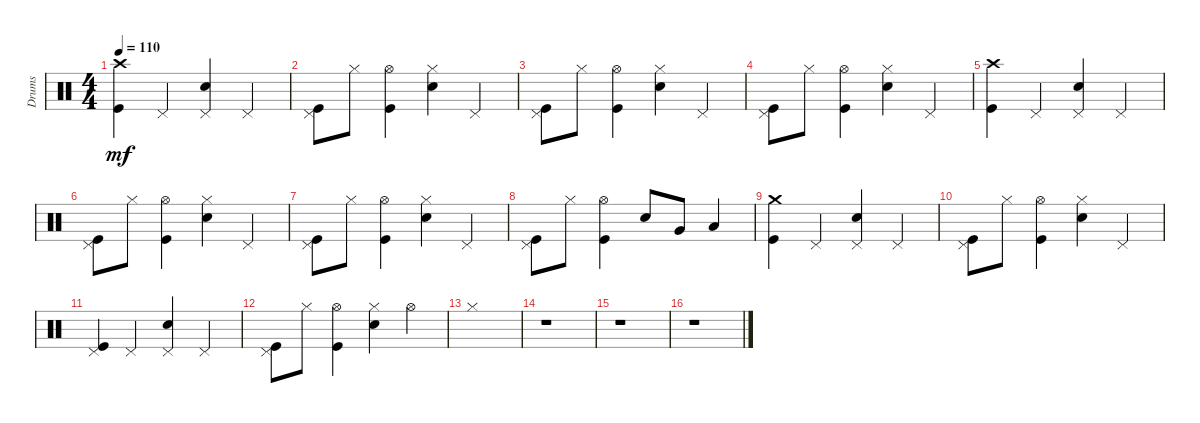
\track ("Drums" "Drums") {instrument percussion}
\staff {score}
\articulation defaults
\ts (4 4)
\tempo 110
\clef neutral
\ks c
("Crash high (hit)" "Kick (hit)").4{dy mf} "Pedal Hi-Hat (hit)".4 ("Pedal Hi-Hat (hit)" "Snare (hit) 2").4 "Pedal Hi-Hat (hit)".4 |
("Pedal Hi-Hat (hit)" "Kick (hit)").8 "Hi-Hat (closed)".8 ("Hi-Hat (open)" "Kick (hit)").4 ("Hi-Hat (closed)" "Snare (hit) 2").4 "Pedal Hi-Hat (hit)".4 |
("Pedal Hi-Hat (hit)" "Kick (hit)").8 "Hi-Hat (closed)".8 ("Hi-Hat (open)" "Kick (hit)").4 ("Hi-Hat (closed)" "Snare (hit) 2").4 "Pedal Hi-Hat (hit)".4 |
("Pedal Hi-Hat (hit)" "Kick (hit)").8 "Hi-Hat (closed)".8 ("Hi-Hat (open)" "Kick (hit)").4 ("Hi-Hat (closed)" "Snare (hit) 2").4 "Pedal Hi-Hat (hit)".4 |
("Crash high (hit)" "Kick (hit)").4 "Pedal Hi-Hat (hit)".4 ("Pedal Hi-Hat (hit)" "Snare (hit) 2").4 "Pedal Hi-Hat (hit)".4 |
("Pedal Hi-Hat (hit)" "Kick (hit)").8 "Hi-Hat (closed)".8 ("Hi-Hat (open)" "Kick (hit)").4 ("Hi-Hat (closed)" "Snare (hit) 2").4 "Pedal Hi-Hat (hit)".4 |
("Pedal Hi-Hat (hit)" "Kick (hit)").8 "Hi-Hat (closed)".8 ("Hi-Hat (open)" "Kick (hit)").4 ("Hi-Hat (closed)" "Snare (hit) 2").4 "Pedal Hi-Hat (hit)".4 |
("Pedal Hi-Hat (hit)" "Kick (hit)").8 "Hi-Hat (closed)".8 ("Hi-Hat (open)" "Kick (hit)").4 "Snare (hit) 2".8 "Very Low Tom (hit)".8 "Low Tom (hit)".4 |
("Crash medium (hit)" "Kick (hit)").4 "Pedal Hi-Hat (hit)".4 ("Pedal Hi-Hat (hit)" "Snare (hit) 2").4 "Pedal Hi-Hat (hit)".4 |
("Pedal Hi-Hat (hit)" "Kick (hit)").8 "Hi-Hat (closed)".8 ("Hi-Hat (open)" "Kick (hit)").4 ("Hi-Hat (closed)" "Snare (hit) 2").4 "Pedal Hi-Hat (hit)".4 |
("Pedal Hi-Hat (hit)" "Kick (hit)").4 "Pedal Hi-Hat (hit)".4 ("Pedal Hi-Hat (hit)" "Snare (hit) 2").4 "Pedal Hi-Hat (hit)".4 |
("Pedal Hi-Hat (hit)" "Kick (hit)").8 "Hi-Hat (closed)".8 ("Hi-Hat (open)" "Kick (hit)").4 ("Hi-Hat (closed)" "Snare (hit) 2").4 "Hi-Hat (open)".4 |
"Hi-Hat (closed)".1 |
r.1 |
r.1 |
r.1
